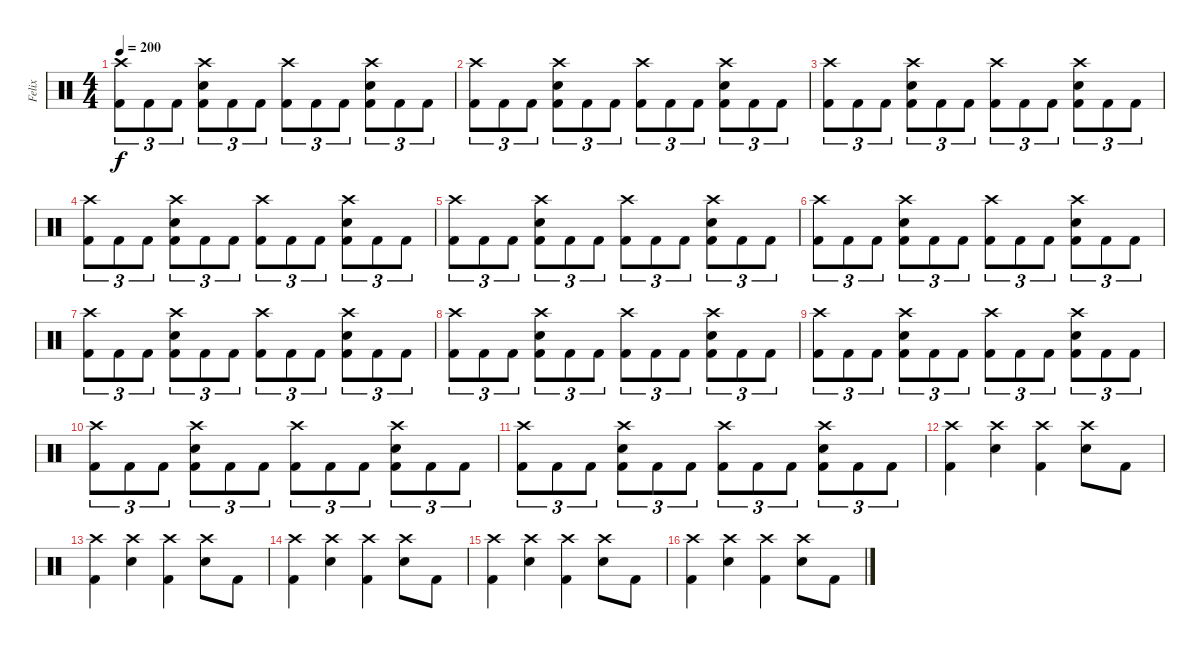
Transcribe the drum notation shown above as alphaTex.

\track ("Felix" "Felix") {instrument percussion}
\staff {score}
\articulation defaults
\ts (4 4)
\tempo 200
\clef neutral
\ks c
("Crash high (hit)" "Kick (hit) 2").8{tu (3 2) dy f} "Kick (hit) 2".8{tu (3 2)} "Kick (hit) 2".8{tu (3 2)} ("Crash high (hit)" "Electric Snare (hit)" "Kick (hit) 2").8{tu (3 2)} "Kick (hit) 2".8{tu (3 2)} "Kick (hit) 2".8{tu (3 2)} ("Crash high (hit)" "Kick (hit) 2").8{tu (3 2)} "Kick (hit) 2".8{tu (3 2)} "Kick (hit) 2".8{tu (3 2)} ("Crash high (hit)" "Electric Snare (hit)" "Kick (hit) 2").8{tu (3 2)} "Kick (hit) 2".8{tu (3 2)} "Kick (hit) 2".8{tu (3 2)} |
("Crash high (hit)" "Kick (hit) 2").8{tu (3 2)} "Kick (hit) 2".8{tu (3 2)} "Kick (hit) 2".8{tu (3 2)} ("Crash high (hit)" "Electric Snare (hit)" "Kick (hit) 2").8{tu (3 2)} "Kick (hit) 2".8{tu (3 2)} "Kick (hit) 2".8{tu (3 2)} ("Crash high (hit)" "Kick (hit) 2").8{tu (3 2)} "Kick (hit) 2".8{tu (3 2)} "Kick (hit) 2".8{tu (3 2)} ("Crash high (hit)" "Electric Snare (hit)" "Kick (hit) 2").8{tu (3 2)} "Kick (hit) 2".8{tu (3 2)} "Kick (hit) 2".8{tu (3 2)} |
("Crash high (hit)" "Kick (hit) 2").8{tu (3 2)} "Kick (hit) 2".8{tu (3 2)} "Kick (hit) 2".8{tu (3 2)} ("Crash high (hit)" "Electric Snare (hit)" "Kick (hit) 2").8{tu (3 2)} "Kick (hit) 2".8{tu (3 2)} "Kick (hit) 2".8{tu (3 2)} ("Crash high (hit)" "Kick (hit) 2").8{tu (3 2)} "Kick (hit) 2".8{tu (3 2)} "Kick (hit) 2".8{tu (3 2)} ("Crash high (hit)" "Electric Snare (hit)" "Kick (hit) 2").8{tu (3 2)} "Kick (hit) 2".8{tu (3 2)} "Kick (hit) 2".8{tu (3 2)} |
("Crash high (hit)" "Kick (hit) 2").8{tu (3 2)} "Kick (hit) 2".8{tu (3 2)} "Kick (hit) 2".8{tu (3 2)} ("Crash high (hit)" "Electric Snare (hit)" "Kick (hit) 2").8{tu (3 2)} "Kick (hit) 2".8{tu (3 2)} "Kick (hit) 2".8{tu (3 2)} ("Crash high (hit)" "Kick (hit) 2").8{tu (3 2)} "Kick (hit) 2".8{tu (3 2)} "Kick (hit) 2".8{tu (3 2)} ("Crash high (hit)" "Electric Snare (hit)" "Kick (hit) 2").8{tu (3 2)} "Kick (hit) 2".8{tu (3 2)} "Kick (hit) 2".8{tu (3 2)} |
("Crash high (hit)" "Kick (hit) 2").8{tu (3 2)} "Kick (hit) 2".8{tu (3 2)} "Kick (hit) 2".8{tu (3 2)} ("Crash high (hit)" "Electric Snare (hit)" "Kick (hit) 2").8{tu (3 2)} "Kick (hit) 2".8{tu (3 2)} "Kick (hit) 2".8{tu (3 2)} ("Crash high (hit)" "Kick (hit) 2").8{tu (3 2)} "Kick (hit) 2".8{tu (3 2)} "Kick (hit) 2".8{tu (3 2)} ("Crash high (hit)" "Electric Snare (hit)" "Kick (hit) 2").8{tu (3 2)} "Kick (hit) 2".8{tu (3 2)} "Kick (hit) 2".8{tu (3 2)} |
("Crash high (hit)" "Kick (hit) 2").8{tu (3 2)} "Kick (hit) 2".8{tu (3 2)} "Kick (hit) 2".8{tu (3 2)} ("Crash high (hit)" "Electric Snare (hit)" "Kick (hit) 2").8{tu (3 2)} "Kick (hit) 2".8{tu (3 2)} "Kick (hit) 2".8{tu (3 2)} ("Crash high (hit)" "Kick (hit) 2").8{tu (3 2)} "Kick (hit) 2".8{tu (3 2)} "Kick (hit) 2".8{tu (3 2)} ("Crash high (hit)" "Electric Snare (hit)" "Kick (hit) 2").8{tu (3 2)} "Kick (hit) 2".8{tu (3 2)} "Kick (hit) 2".8{tu (3 2)} |
("Crash high (hit)" "Kick (hit) 2").8{tu (3 2)} "Kick (hit) 2".8{tu (3 2)} "Kick (hit) 2".8{tu (3 2)} ("Crash high (hit)" "Electric Snare (hit)" "Kick (hit) 2").8{tu (3 2)} "Kick (hit) 2".8{tu (3 2)} "Kick (hit) 2".8{tu (3 2)} ("Crash high (hit)" "Kick (hit) 2").8{tu (3 2)} "Kick (hit) 2".8{tu (3 2)} "Kick (hit) 2".8{tu (3 2)} ("Crash high (hit)" "Electric Snare (hit)" "Kick (hit) 2").8{tu (3 2)} "Kick (hit) 2".8{tu (3 2)} "Kick (hit) 2".8{tu (3 2)} |
("Crash high (hit)" "Kick (hit) 2").8{tu (3 2)} "Kick (hit) 2".8{tu (3 2)} "Kick (hit) 2".8{tu (3 2)} ("Crash high (hit)" "Electric Snare (hit)" "Kick (hit) 2").8{tu (3 2)} "Kick (hit) 2".8{tu (3 2)} "Kick (hit) 2".8{tu (3 2)} ("Crash high (hit)" "Kick (hit) 2").8{tu (3 2)} "Kick (hit) 2".8{tu (3 2)} "Kick (hit) 2".8{tu (3 2)} ("Crash high (hit)" "Electric Snare (hit)" "Kick (hit) 2").8{tu (3 2)} "Kick (hit) 2".8{tu (3 2)} "Kick (hit) 2".8{tu (3 2)} |
("Crash high (hit)" "Kick (hit) 2").8{tu (3 2)} "Kick (hit) 2".8{tu (3 2)} "Kick (hit) 2".8{tu (3 2)} ("Crash high (hit)" "Electric Snare (hit)" "Kick (hit) 2").8{tu (3 2)} "Kick (hit) 2".8{tu (3 2)} "Kick (hit) 2".8{tu (3 2)} ("Crash high (hit)" "Kick (hit) 2").8{tu (3 2)} "Kick (hit) 2".8{tu (3 2)} "Kick (hit) 2".8{tu (3 2)} ("Crash high (hit)" "Electric Snare (hit)" "Kick (hit) 2").8{tu (3 2)} "Kick (hit) 2".8{tu (3 2)} "Kick (hit) 2".8{tu (3 2)} |
("Crash high (hit)" "Kick (hit) 2").8{tu (3 2)} "Kick (hit) 2".8{tu (3 2)} "Kick (hit) 2".8{tu (3 2)} ("Crash high (hit)" "Electric Snare (hit)" "Kick (hit) 2").8{tu (3 2)} "Kick (hit) 2".8{tu (3 2)} "Kick (hit) 2".8{tu (3 2)} ("Crash high (hit)" "Kick (hit) 2").8{tu (3 2)} "Kick (hit) 2".8{tu (3 2)} "Kick (hit) 2".8{tu (3 2)} ("Crash high (hit)" "Electric Snare (hit)" "Kick (hit) 2").8{tu (3 2)} "Kick (hit) 2".8{tu (3 2)} "Kick (hit) 2".8{tu (3 2)} |
("Crash high (hit)" "Kick (hit) 2").8{tu (3 2)} "Kick (hit) 2".8{tu (3 2)} "Kick (hit) 2".8{tu (3 2)} ("Crash high (hit)" "Electric Snare (hit)" "Kick (hit) 2").8{tu (3 2)} "Kick (hit) 2".8{tu (3 2)} "Kick (hit) 2".8{tu (3 2)} ("Crash high (hit)" "Kick (hit) 2").8{tu (3 2)} "Kick (hit) 2".8{tu (3 2)} "Kick (hit) 2".8{tu (3 2)} ("Crash high (hit)" "Electric Snare (hit)" "Kick (hit) 2").8{tu (3 2)} "Kick (hit) 2".8{tu (3 2)} "Kick (hit) 2".8{tu (3 2)} |
("Crash high (hit)" "Kick (hit) 2").4 ("Crash high (hit)" "Electric Snare (hit)").4 ("Crash high (hit)" "Kick (hit) 2").4 ("Crash high (hit)" "Electric Snare (hit)").8 "Kick (hit) 2".8 |
("Crash high (hit)" "Kick (hit) 2").4 ("Crash high (hit)" "Electric Snare (hit)").4 ("Crash high (hit)" "Kick (hit) 2").4 ("Crash high (hit)" "Electric Snare (hit)").8 "Kick (hit) 2".8 |
("Crash high (hit)" "Kick (hit) 2").4 ("Crash high (hit)" "Electric Snare (hit)").4 ("Crash high (hit)" "Kick (hit) 2").4 ("Crash high (hit)" "Electric Snare (hit)").8 "Kick (hit) 2".8 |
("Crash high (hit)" "Kick (hit) 2").4 ("Crash high (hit)" "Electric Snare (hit)").4 ("Crash high (hit)" "Kick (hit) 2").4 ("Crash high (hit)" "Electric Snare (hit)").8 "Kick (hit) 2".8 |
("Crash high (hit)" "Kick (hit) 2").4 ("Crash high (hit)" "Electric Snare (hit)").4 ("Crash high (hit)" "Kick (hit) 2").4 ("Crash high (hit)" "Electric Snare (hit)").8 "Kick (hit) 2".8
